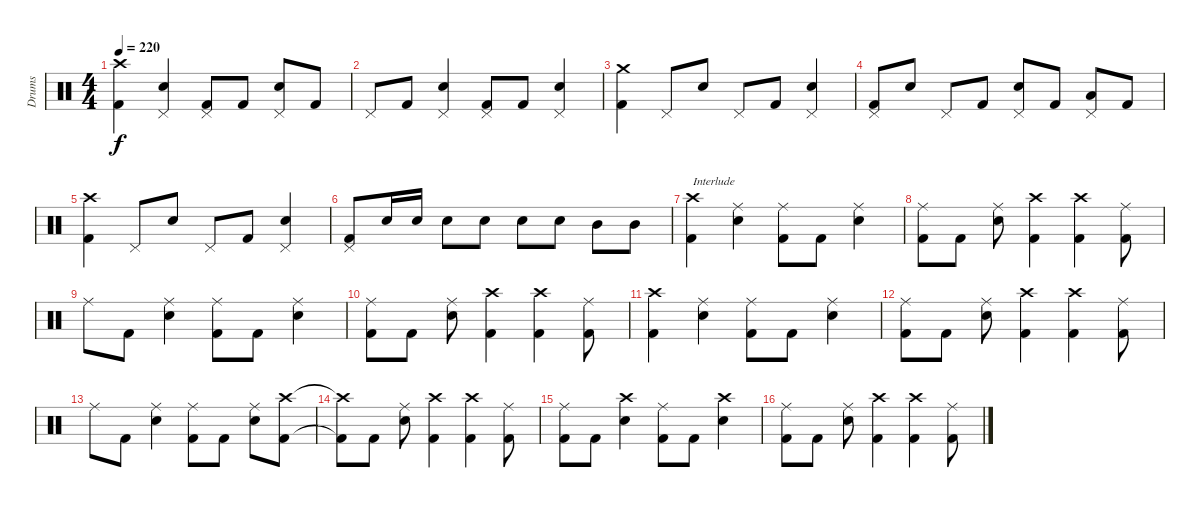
\track ("Drums" "Drums") {instrument percussion}
\staff {score}
\articulation defaults
\ts (4 4)
\tempo 220
\clef neutral
\ks c
("Crash high (hit)" "Kick (hit) 2").4{dy f} ("Pedal Hi-Hat (hit)" "Snare (hit) 2").4 ("Pedal Hi-Hat (hit)" "Kick (hit) 2").8 "Kick (hit) 2".8 ("Pedal Hi-Hat (hit)" "Snare (hit) 2").8 "Kick (hit) 2".8 |
"Pedal Hi-Hat (hit)".8 "Kick (hit) 2".8 ("Pedal Hi-Hat (hit)" "Snare (hit) 2").4 ("Pedal Hi-Hat (hit)" "Kick (hit) 2").8 "Kick (hit) 2".8 ("Pedal Hi-Hat (hit)" "Snare (hit) 2").4 |
("Crash medium (hit)" "Kick (hit) 2").4 "Pedal Hi-Hat (hit)".8 "Snare (hit) 2".8 "Pedal Hi-Hat (hit)".8 "Kick (hit) 2".8 ("Pedal Hi-Hat (hit)" "Snare (hit) 2").4 |
("Pedal Hi-Hat (hit)" "Kick (hit) 2").8 "Snare (hit) 2".8 "Pedal Hi-Hat (hit)".8 "Kick (hit) 2".8 ("Pedal Hi-Hat (hit)" "Snare (hit) 2").8 "Kick (hit) 2".8 ("Pedal Hi-Hat (hit)" "Low Tom (hit)").8 "Kick (hit) 2".8 |
("Crash high (hit)" "Kick (hit) 2").4 "Pedal Hi-Hat (hit)".8 "Snare (hit) 2".8 "Pedal Hi-Hat (hit)".8 "Kick (hit) 2".8 ("Pedal Hi-Hat (hit)" "Snare (hit) 2").4 |
("Pedal Hi-Hat (hit)" "Kick (hit) 2").8 "Snare (hit) 2".16 "Snare (hit) 2".16 "Snare (hit) 2".8 "Snare (hit) 2".8 "Snare (hit) 2".8 "Snare (hit) 2".8 "Mid Tom (hit)".8 "Mid Tom (hit)".8 |
("Crash high (hit)" "Kick (hit) 2").4{txt "Interlude"} ("Ride (middle)" "Snare (hit) 2").4 ("Ride (middle)" "Kick (hit) 2").8 "Kick (hit) 2".8 ("Ride (middle)" "Snare (hit) 2").4 |
("Ride (middle)" "Kick (hit) 2").8 "Kick (hit) 2".8 ("Ride (middle)" "Snare (hit) 2").8 ("Crash high (hit)" "Kick (hit) 2").4 ("Crash high (hit)" "Kick (hit) 2").4 ("Ride (middle)" "Kick (hit) 2").8 |
"Ride (middle)".8 "Kick (hit) 2".8 ("Ride (middle)" "Snare (hit) 2").4 ("Ride (middle)" "Kick (hit) 2").8 "Kick (hit) 2".8 ("Ride (middle)" "Snare (hit) 2").4 |
("Ride (middle)" "Kick (hit) 2").8 "Kick (hit) 2".8 ("Ride (middle)" "Snare (hit) 2").8 ("Crash high (hit)" "Kick (hit) 2").4 ("Crash high (hit)" "Kick (hit) 2").4 ("Ride (middle)" "Kick (hit) 2").8 |
("Crash high (hit)" "Kick (hit) 2").4 ("Ride (middle)" "Snare (hit) 2").4 ("Ride (middle)" "Kick (hit) 2").8 "Kick (hit) 2".8 ("Ride (middle)" "Snare (hit) 2").4 |
("Ride (middle)" "Kick (hit) 2").8 "Kick (hit) 2".8 ("Ride (middle)" "Snare (hit) 2").8 ("Crash high (hit)" "Kick (hit) 2").4 ("Crash high (hit)" "Kick (hit) 2").4 ("Ride (middle)" "Kick (hit) 2").8 |
"Ride (middle)".8 "Kick (hit) 2".8 ("Ride (middle)" "Snare (hit) 2").4 ("Ride (middle)" "Kick (hit) 2").8 "Kick (hit) 2".8 ("Ride (middle)" "Snare (hit) 2").8 ("Crash high (hit)" "Kick (hit) 2").8 |
("Crash high (hit)"{t} "Kick (hit) 2"{t}).8 "Kick (hit) 2".8 ("Ride (middle)" "Snare (hit) 2").8 ("Crash high (hit)" "Kick (hit) 2").4 ("Crash high (hit)" "Kick (hit) 2").4 ("Ride (middle)" "Kick (hit) 2").8 |
("Ride (middle)" "Kick (hit) 2").8 "Kick (hit) 2".8 ("Crash high (hit)" "Snare (hit) 2").4 ("Ride (middle)" "Kick (hit) 2").8 "Kick (hit) 2".8 ("Crash high (hit)" "Snare (hit) 2").4 |
("Ride (middle)" "Kick (hit) 2").8 "Kick (hit) 2".8 ("Ride (middle)" "Snare (hit) 2").8 ("Crash high (hit)" "Kick (hit) 2").4 ("Crash high (hit)" "Kick (hit) 2").4 ("Ride (middle)" "Kick (hit) 2").8
